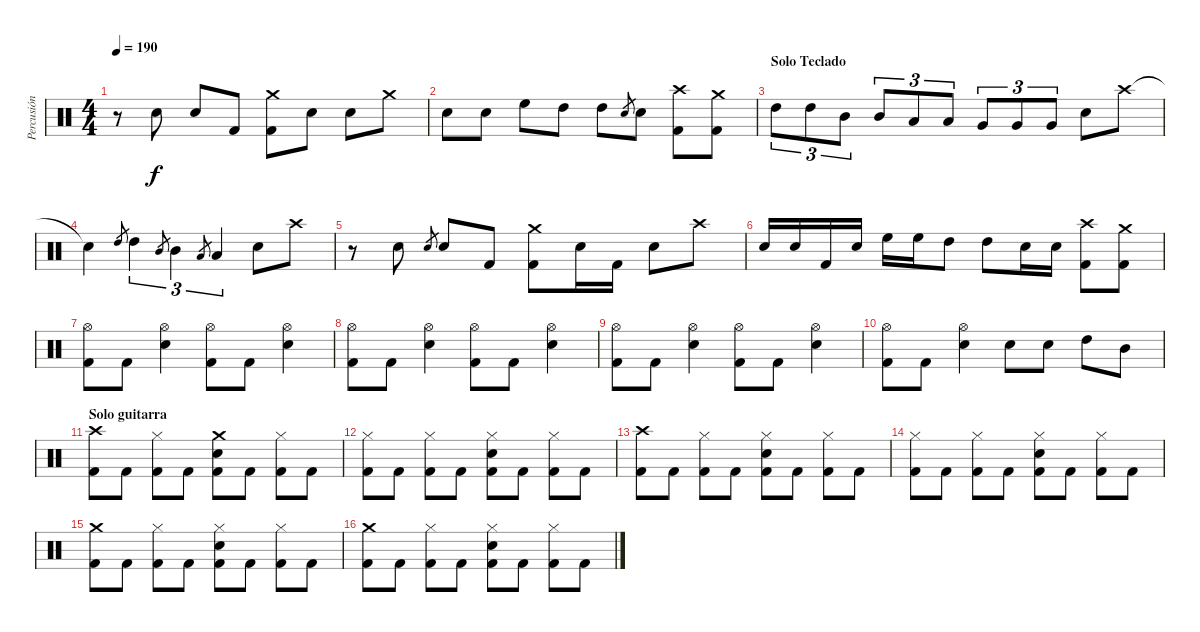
\track ("Percusión" "Percusión") {instrument percussion}
\staff {score}
\articulation defaults
\ts (4 4)
\tempo 190
\clef neutral
\ks c
r.8{dy f} "Snare (hit) 2".8 "Snare (hit) 2".8 "Kick (hit) 2".8 ("Crash medium (hit)" "Kick (hit) 2").8 "Snare (hit) 2".8 "Snare (hit) 2".8 "Crash medium (hit)".8 |
"Snare (hit) 2".8 "Snare (hit) 2".8 "High Floor Tom (hit)".8 "High Tom (hit)".8 "High Tom (hit)".8 "Snare (hit) 2".8{gr} "Snare (hit) 2".8 ("Crash high (hit)" "Kick (hit) 2").8 ("Crash medium (hit)" "Kick (hit) 2").8 |
\section ("" "Solo Teclado")
"High Tom (hit)".8{tu (3 2)} "High Tom (hit)".8{tu (3 2)} "Mid Tom (hit)".8{tu (3 2)} "Mid Tom (hit)".8{tu (3 2)} "Low Tom (hit)".8{tu (3 2)} "Low Tom (hit)".8{tu (3 2)} "Very Low Tom (hit)".8{tu (3 2)} "Very Low Tom (hit)".8{tu (3 2)} "Very Low Tom (hit)".8{tu (3 2)} "Snare (hit) 2".8 "Crash high (hit)".8 |
"Snare (hit)"{t}.4 "High Tom (hit)".8{gr} "High Tom (hit)".4{tu (3 2)} "Mid Tom (hit)".8{gr} "Mid Tom (hit)".4{tu (3 2)} "Low Tom (hit)".8{gr} "Low Tom (hit)".4{tu (3 2)} "Snare (hit) 2".8 "Crash high (hit)".8 |
r.8 "Snare (hit) 2".8 "Snare (hit) 2".8{gr} "Snare (hit) 2".8 "Kick (hit) 2".8 ("Crash medium (hit)" "Kick (hit) 2").8 "Snare (hit) 2".16 "Kick (hit) 2".16 "Snare (hit) 2".8 "Crash high (hit)".8 |
"Snare (hit) 2".16 "Snare (hit) 2".16 "Kick (hit) 2".16 "Snare (hit) 2".16 "High Floor Tom (hit)".16 "High Floor Tom (hit)".16 "High Tom (hit)".8 "High Tom (hit)".8 "Snare (hit) 2".16 "Snare (hit) 2".16 ("Crash high (hit)" "Kick (hit) 2").8 ("Crash medium (hit)" "Kick (hit) 2").8 |
("Hi-Hat (open)" "Kick (hit) 2").8 "Kick (hit) 2".8 ("Hi-Hat (open)" "Snare (hit) 2").4 ("Hi-Hat (open)" "Kick (hit) 2").8 "Kick (hit) 2".8 ("Hi-Hat (open)" "Snare (hit) 2").4 |
("Hi-Hat (open)" "Kick (hit) 2").8 "Kick (hit) 2".8 ("Hi-Hat (open)" "Snare (hit) 2").4 ("Hi-Hat (open)" "Kick (hit) 2").8 "Kick (hit) 2".8 ("Hi-Hat (open)" "Snare (hit) 2").4 |
("Hi-Hat (open)" "Kick (hit) 2").8 "Kick (hit) 2".8 ("Hi-Hat (open)" "Snare (hit) 2").4 ("Hi-Hat (open)" "Kick (hit) 2").8 "Kick (hit) 2".8 ("Hi-Hat (open)" "Snare (hit) 2").4 |
("Hi-Hat (open)" "Kick (hit) 2").8 "Kick (hit) 2".8 ("Hi-Hat (open)" "Snare (hit) 2").4 "Snare (hit) 2".8 "Snare (hit) 2".8 "High Tom (hit)".8 "Mid Tom (hit)".8 |
\section ("" "Solo guitarra")
("Crash high (hit)" "Kick (hit) 2").8 "Kick (hit) 2".8 ("Hi-Hat (closed)" "Kick (hit) 2").8 "Kick (hit) 2".8 ("Crash medium (hit)" "Snare (hit) 2" "Kick (hit) 2").8 "Kick (hit) 2".8 ("Hi-Hat (closed)" "Kick (hit) 2").8 "Kick (hit) 2".8 |
("Hi-Hat (closed)" "Kick (hit) 2").8 "Kick (hit) 2".8 ("Hi-Hat (closed)" "Kick (hit) 2").8 "Kick (hit) 2".8 ("Hi-Hat (closed)" "Snare (hit) 2" "Kick (hit) 2").8 "Kick (hit) 2".8 ("Hi-Hat (closed)" "Kick (hit) 2").8 "Kick (hit) 2".8 |
("Crash high (hit)" "Kick (hit) 2").8 "Kick (hit) 2".8 ("Hi-Hat (closed)" "Kick (hit) 2").8 "Kick (hit) 2".8 ("Hi-Hat (closed)" "Snare (hit) 2" "Kick (hit) 2").8 "Kick (hit) 2".8 ("Hi-Hat (closed)" "Kick (hit) 2").8 "Kick (hit) 2".8 |
("Hi-Hat (closed)" "Kick (hit) 2").8 "Kick (hit) 2".8 ("Hi-Hat (closed)" "Kick (hit) 2").8 "Kick (hit) 2".8 ("Hi-Hat (closed)" "Snare (hit) 2" "Kick (hit) 2").8 "Kick (hit) 2".8 ("Hi-Hat (closed)" "Kick (hit) 2").8 "Kick (hit) 2".8 |
("Crash medium (hit)" "Kick (hit) 2").8 "Kick (hit) 2".8 ("Hi-Hat (closed)" "Kick (hit) 2").8 "Kick (hit) 2".8 ("Hi-Hat (closed)" "Snare (hit) 2" "Kick (hit) 2").8 "Kick (hit) 2".8 ("Hi-Hat (closed)" "Kick (hit) 2").8 "Kick (hit) 2".8 |
("Crash medium (hit)" "Kick (hit) 2").8 "Kick (hit) 2".8 ("Hi-Hat (closed)" "Kick (hit) 2").8 "Kick (hit) 2".8 ("Hi-Hat (closed)" "Snare (hit) 2" "Kick (hit) 2").8 "Kick (hit) 2".8 ("Hi-Hat (closed)" "Kick (hit) 2").8 "Kick (hit) 2".8
